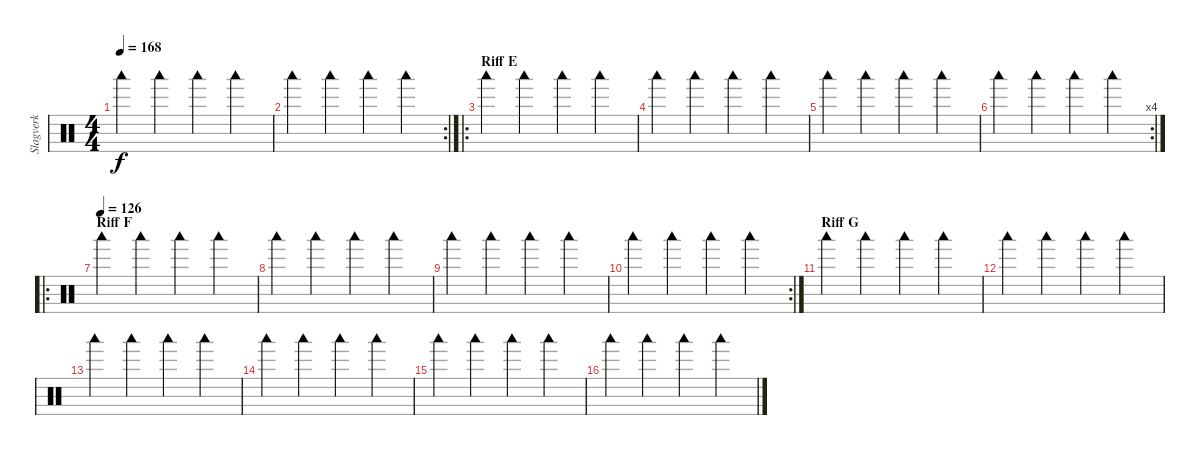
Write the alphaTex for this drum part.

\track ("Slagverk" "Slagverk") {instrument percussion}
\staff {score}
\articulation defaults
\ts (4 4)
\tempo 168
\clef neutral
\ks c "Woodblock low (hit)".4{dy f} "Woodblock low (hit)".4 "Woodblock low (hit)".4 "Woodblock low (hit)".4
|
\rc 2 "Woodblock low (hit)".4 "Woodblock low (hit)".4 "Woodblock low (hit)".4 "Woodblock low (hit)".4
|
\ro
\section ("" "Riff E")
"Woodblock low (hit)".4 "Woodblock low (hit)".4 "Woodblock low (hit)".4 "Woodblock low (hit)".4 |
"Woodblock low (hit)".4 "Woodblock low (hit)".4 "Woodblock low (hit)".4 "Woodblock low (hit)".4 |
"Woodblock low (hit)".4 "Woodblock low (hit)".4 "Woodblock low (hit)".4 "Woodblock low (hit)".4 |
\rc 4 "Woodblock low (hit)".4 "Woodblock low (hit)".4 "Woodblock low (hit)".4 "Woodblock low (hit)".4
|
\ro
\section ("" "Riff F")
\tempo (126)
"Woodblock low (hit)".4 "Woodblock low (hit)".4 "Woodblock low (hit)".4 "Woodblock low (hit)".4 |
"Woodblock low (hit)".4 "Woodblock low (hit)".4 "Woodblock low (hit)".4 "Woodblock low (hit)".4 |
"Woodblock low (hit)".4 "Woodblock low (hit)".4 "Woodblock low (hit)".4 "Woodblock low (hit)".4 |
\rc 2 "Woodblock low (hit)".4 "Woodblock low (hit)".4 "Woodblock low (hit)".4 "Woodblock low (hit)".4
|
\section ("" "Riff G")
"Woodblock low (hit)".4 "Woodblock low (hit)".4 "Woodblock low (hit)".4 "Woodblock low (hit)".4 |
"Woodblock low (hit)".4 "Woodblock low (hit)".4 "Woodblock low (hit)".4 "Woodblock low (hit)".4 |
"Woodblock low (hit)".4 "Woodblock low (hit)".4 "Woodblock low (hit)".4 "Woodblock low (hit)".4 |
"Woodblock low (hit)".4 "Woodblock low (hit)".4 "Woodblock low (hit)".4 "Woodblock low (hit)".4 |
"Woodblock low (hit)".4 "Woodblock low (hit)".4 "Woodblock low (hit)".4 "Woodblock low (hit)".4 |
"Woodblock low (hit)".4 "Woodblock low (hit)".4 "Woodblock low (hit)".4 "Woodblock low (hit)".4
